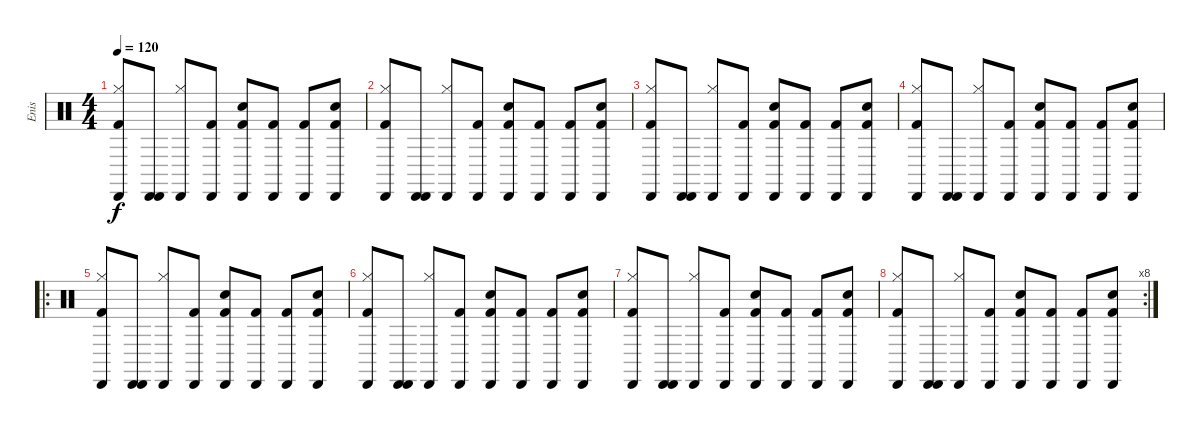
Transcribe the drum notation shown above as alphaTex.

\track ("Enis" "Enis") {instrument percussion}
\staff {score}
\articulation defaults
\ts (4 4)
\tempo 120
\clef neutral
\ks c
("Kick (hit) 2" "Hi-Hat (closed)" "Cabasa (hit)").8{dy f} ("Cabasa (hit)" "Cabasa (hit)").8 ("Cabasa (hit)" "Hi-Hat (closed)").8 ("Kick (hit) 2" "Cabasa (hit)").8 ("Kick (hit) 2" "Snare (hit) 2" "Cabasa (hit)").8 ("Kick (hit) 2" "Cabasa (hit)").8 ("Kick (hit) 2" "Cabasa (hit)").8 ("Kick (hit) 2" "Cabasa (hit)" "Snare (hit) 2").8 |
("Kick (hit) 2" "Hi-Hat (closed)" "Cabasa (hit)").8 ("Cabasa (hit)" "Cabasa (hit)").8 ("Cabasa (hit)" "Hi-Hat (closed)").8 ("Kick (hit) 2" "Cabasa (hit)").8 ("Kick (hit) 2" "Snare (hit) 2" "Cabasa (hit)").8 ("Kick (hit) 2" "Cabasa (hit)").8 ("Kick (hit) 2" "Cabasa (hit)").8 ("Kick (hit) 2" "Cabasa (hit)" "Snare (hit) 2").8 |
("Kick (hit) 2" "Hi-Hat (closed)" "Cabasa (hit)").8 ("Cabasa (hit)" "Cabasa (hit)").8 ("Cabasa (hit)" "Hi-Hat (closed)").8 ("Kick (hit) 2" "Cabasa (hit)").8 ("Kick (hit) 2" "Snare (hit) 2" "Cabasa (hit)").8 ("Kick (hit) 2" "Cabasa (hit)").8 ("Kick (hit) 2" "Cabasa (hit)").8 ("Kick (hit) 2" "Cabasa (hit)" "Snare (hit) 2").8 |
("Kick (hit) 2" "Hi-Hat (closed)" "Cabasa (hit)").8 ("Cabasa (hit)" "Cabasa (hit)").8 ("Cabasa (hit)" "Hi-Hat (closed)").8 ("Kick (hit) 2" "Cabasa (hit)").8 ("Kick (hit) 2" "Snare (hit) 2" "Cabasa (hit)").8 ("Kick (hit) 2" "Cabasa (hit)").8 ("Kick (hit) 2" "Cabasa (hit)").8 ("Kick (hit) 2" "Cabasa (hit)" "Snare (hit) 2").8 |
\ro
("Kick (hit) 2" "Hi-Hat (closed)" "Cabasa (hit)").8 ("Cabasa (hit)" "Cabasa (hit)").8 ("Cabasa (hit)" "Hi-Hat (closed)").8 ("Kick (hit) 2" "Cabasa (hit)").8 ("Kick (hit) 2" "Snare (hit) 2" "Cabasa (hit)").8 ("Kick (hit) 2" "Cabasa (hit)").8 ("Kick (hit) 2" "Cabasa (hit)").8 ("Kick (hit) 2" "Cabasa (hit)" "Snare (hit) 2").8 |
("Kick (hit) 2" "Hi-Hat (closed)" "Cabasa (hit)").8 ("Cabasa (hit)" "Cabasa (hit)").8 ("Cabasa (hit)" "Hi-Hat (closed)").8 ("Kick (hit) 2" "Cabasa (hit)").8 ("Kick (hit) 2" "Snare (hit) 2" "Cabasa (hit)").8 ("Kick (hit) 2" "Cabasa (hit)").8 ("Kick (hit) 2" "Cabasa (hit)").8 ("Kick (hit) 2" "Cabasa (hit)" "Snare (hit) 2").8 |
("Kick (hit) 2" "Hi-Hat (closed)" "Cabasa (hit)").8 ("Cabasa (hit)" "Cabasa (hit)").8 ("Cabasa (hit)" "Hi-Hat (closed)").8 ("Kick (hit) 2" "Cabasa (hit)").8 ("Kick (hit) 2" "Snare (hit) 2" "Cabasa (hit)").8 ("Kick (hit) 2" "Cabasa (hit)").8 ("Kick (hit) 2" "Cabasa (hit)").8 ("Kick (hit) 2" "Cabasa (hit)" "Snare (hit) 2").8 |
\rc 8
("Kick (hit) 2" "Hi-Hat (closed)" "Cabasa (hit)").8 ("Cabasa (hit)" "Cabasa (hit)").8 ("Cabasa (hit)" "Hi-Hat (closed)").8 ("Kick (hit) 2" "Cabasa (hit)").8 ("Kick (hit) 2" "Snare (hit) 2" "Cabasa (hit)").8 ("Kick (hit) 2" "Cabasa (hit)").8 ("Kick (hit) 2" "Cabasa (hit)").8 ("Kick (hit) 2" "Cabasa (hit)" "Snare (hit) 2").8
